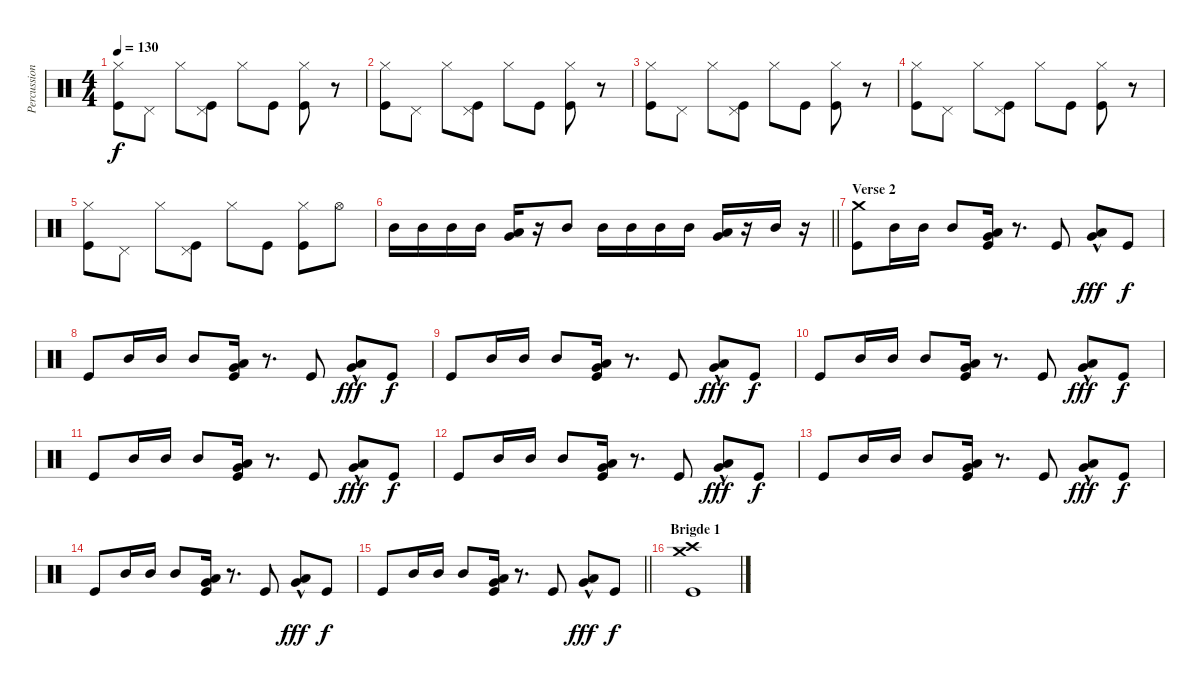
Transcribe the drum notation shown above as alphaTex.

\track ("Percussion 1" "Percussion") {instrument percussion}
\staff {score}
\articulation defaults
\ts (4 4)
\tempo 130
\clef neutral
\ks c
("Hi-Hat (closed)" "Kick (hit)").8{dy f} "Pedal Hi-Hat (hit)".8 "Hi-Hat (closed)".8 ("Pedal Hi-Hat (hit)" "Kick (hit)").8 "Hi-Hat (closed)".8 "Kick (hit)".8 ("Hi-Hat (closed)" "Kick (hit)").8 r.8 |
("Hi-Hat (closed)" "Kick (hit)").8 "Pedal Hi-Hat (hit)".8 "Hi-Hat (closed)".8 ("Pedal Hi-Hat (hit)" "Kick (hit)").8 "Hi-Hat (closed)".8 "Kick (hit)".8 ("Hi-Hat (closed)" "Kick (hit)").8 r.8 |
("Hi-Hat (closed)" "Kick (hit)").8 "Pedal Hi-Hat (hit)".8 "Hi-Hat (closed)".8 ("Pedal Hi-Hat (hit)" "Kick (hit)").8 "Hi-Hat (closed)".8 "Kick (hit)".8 ("Hi-Hat (closed)" "Kick (hit)").8 r.8 |
("Hi-Hat (closed)" "Kick (hit)").8 "Pedal Hi-Hat (hit)".8 "Hi-Hat (closed)".8 ("Pedal Hi-Hat (hit)" "Kick (hit)").8 "Hi-Hat (closed)".8 "Kick (hit)".8 ("Hi-Hat (closed)" "Kick (hit)").8 r.8 |
("Hi-Hat (closed)" "Kick (hit)").8 "Pedal Hi-Hat (hit)".8 "Hi-Hat (closed)".8 ("Pedal Hi-Hat (hit)" "Kick (hit)").8 "Hi-Hat (closed)".8 "Kick (hit)".8 ("Hi-Hat (closed)" "Kick (hit)").8 "Hi-Hat (open)".8 |
\barLineRight lightlight "Mid Tom (hit)".16 "Mid Tom (hit)".16 "Mid Tom (hit)".16 "Mid Tom (hit)".16
("Very Low Tom (hit)" "Low Tom (hit)").16 r.16 "Mid Tom (hit)".8 "Mid Tom (hit)".16 "Mid Tom (hit)".16 "Mid Tom (hit)".16 "Mid Tom (hit)".16 ("Very Low Tom (hit)" "Low Tom (hit)").16 r.16 "Mid Tom (hit)".16 r.16 |
\section ("" "Verse 2")
("Crash medium (hit)" "Kick (hit)").8 "Mid Tom (hit)".16 "Mid Tom (hit)".16 "Mid Tom (hit)".8 ("Low Tom (hit)" "Very Low Tom (hit)" "Kick (hit)").16 r.8{d} "Kick (hit)".8 ("Low Tom (hit)"{hac} "Very Low Tom (hit)"{hac}).8{bd 60 dy fff} "Kick (hit)".8{dy f} |
"Kick (hit)".8 "Mid Tom (hit)".16 "Mid Tom (hit)".16 "Mid Tom (hit)".8 ("Low Tom (hit)" "Very Low Tom (hit)" "Kick (hit)").16 r.8{d} "Kick (hit)".8 ("Low Tom (hit)"{hac} "Very Low Tom (hit)"{hac}).8{bd 60 dy fff} "Kick (hit)".8{dy f} |
"Kick (hit)".8 "Mid Tom (hit)".16 "Mid Tom (hit)".16 "Mid Tom (hit)".8 ("Low Tom (hit)" "Very Low Tom (hit)" "Kick (hit)").16 r.8{d} "Kick (hit)".8 ("Low Tom (hit)"{hac} "Very Low Tom (hit)"{hac}).8{bd 60 dy fff} "Kick (hit)".8{dy f} |
"Kick (hit)".8 "Mid Tom (hit)".16 "Mid Tom (hit)".16 "Mid Tom (hit)".8 ("Low Tom (hit)" "Very Low Tom (hit)" "Kick (hit)").16 r.8{d} "Kick (hit)".8 ("Low Tom (hit)"{hac} "Very Low Tom (hit)"{hac}).8{bd 60 dy fff} "Kick (hit)".8{dy f} |
"Kick (hit)".8 "Mid Tom (hit)".16 "Mid Tom (hit)".16 "Mid Tom (hit)".8 ("Low Tom (hit)" "Very Low Tom (hit)" "Kick (hit)").16 r.8{d} "Kick (hit)".8 ("Low Tom (hit)"{hac} "Very Low Tom (hit)"{hac}).8{bd 60 dy fff} "Kick (hit)".8{dy f} |
"Kick (hit)".8 "Mid Tom (hit)".16 "Mid Tom (hit)".16 "Mid Tom (hit)".8 ("Low Tom (hit)" "Very Low Tom (hit)" "Kick (hit)").16 r.8{d} "Kick (hit)".8 ("Low Tom (hit)"{hac} "Very Low Tom (hit)"{hac}).8{bd 60 dy fff} "Kick (hit)".8{dy f} |
"Kick (hit)".8 "Mid Tom (hit)".16 "Mid Tom (hit)".16 "Mid Tom (hit)".8 ("Low Tom (hit)" "Very Low Tom (hit)" "Kick (hit)").16 r.8{d} "Kick (hit)".8 ("Low Tom (hit)"{hac} "Very Low Tom (hit)"{hac}).8{bd 60 dy fff} "Kick (hit)".8{dy f} |
"Kick (hit)".8 "Mid Tom (hit)".16 "Mid Tom (hit)".16 "Mid Tom (hit)".8 ("Low Tom (hit)" "Very Low Tom (hit)" "Kick (hit)").16 r.8{d} "Kick (hit)".8 ("Low Tom (hit)"{hac} "Very Low Tom (hit)"{hac}).8{bd 60 dy fff} "Kick (hit)".8{dy f} |
\barLineRight lightlight "Kick (hit)".8 "Mid Tom (hit)".16 "Mid Tom (hit)".16 "Mid Tom (hit)".8
("Low Tom (hit)" "Very Low Tom (hit)" "Kick (hit)").16 r.8{d} "Kick (hit)".8 ("Low Tom (hit)"{hac} "Very Low Tom (hit)"{hac}).8{bd 60 dy fff} "Kick (hit)".8{dy f} |
\section ("" "Brigde 1")
("Crash medium (hit)" "Crash high (hit)" "Kick (hit)").1
